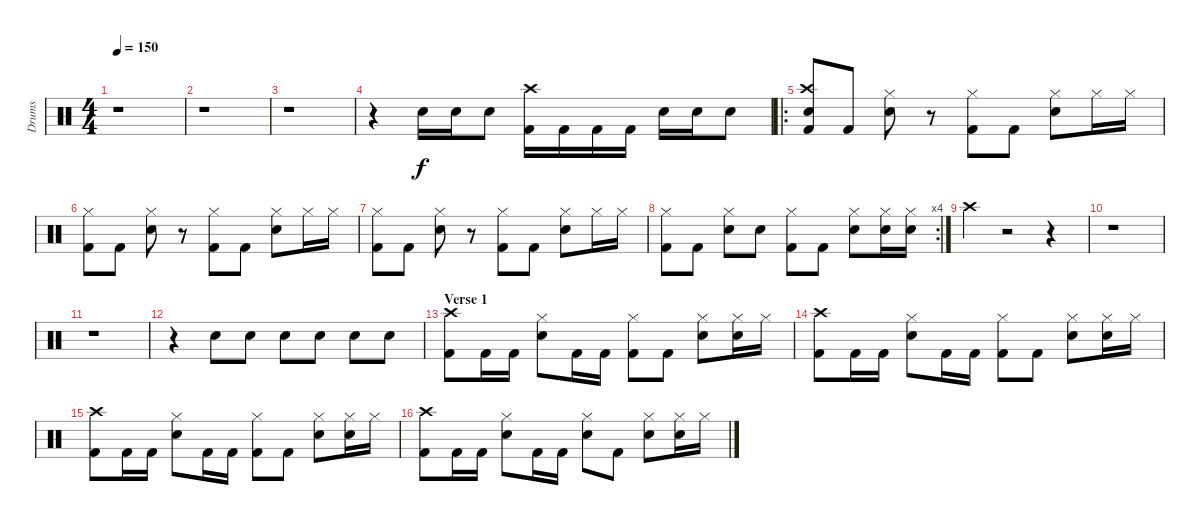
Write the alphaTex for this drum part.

\track ("Drums" "Drums") {instrument percussion}
\staff {score}
\articulation defaults
\ts (4 4)
\tempo 150
\clef neutral
\ks c
r.1{dy f} |
r.1 |
r.1 |
r.4 "Electric Snare (hit)".16 "Electric Snare (hit)".16 "Electric Snare (hit)".8 ("Crash high (hit)" "Kick (hit) 2").16 "Kick (hit) 2".16 "Kick (hit) 2".16 "Kick (hit) 2".16 "Electric Snare (hit)".16 "Electric Snare (hit)".16 "Electric Snare (hit)".8 |
\ro
("Crash high (hit)" "Electric Snare (hit)" "Kick (hit) 2").8 "Kick (hit) 2".8 ("Hi-Hat (closed)" "Electric Snare (hit)").8 r.8 ("Hi-Hat (closed)" "Kick (hit) 2").8 "Kick (hit) 2".8 ("Hi-Hat (closed)" "Electric Snare (hit)").8 "Hi-Hat (closed)".16 "Hi-Hat (closed)".16 |
("Hi-Hat (closed)" "Kick (hit) 2").8 "Kick (hit) 2".8 ("Hi-Hat (closed)" "Electric Snare (hit)").8 r.8 ("Hi-Hat (closed)" "Kick (hit) 2").8 "Kick (hit) 2".8 ("Hi-Hat (closed)" "Electric Snare (hit)").8 "Hi-Hat (closed)".16 "Hi-Hat (closed)".16 |
("Hi-Hat (closed)" "Kick (hit) 2").8 "Kick (hit) 2".8 ("Hi-Hat (closed)" "Electric Snare (hit)").8 r.8 ("Hi-Hat (closed)" "Kick (hit) 2").8 "Kick (hit) 2".8 ("Hi-Hat (closed)" "Electric Snare (hit)").8 "Hi-Hat (closed)".16 "Hi-Hat (closed)".16 |
\rc 4
("Hi-Hat (closed)" "Kick (hit) 2").8 "Kick (hit) 2".8 ("Hi-Hat (closed)" "Electric Snare (hit)").8 "Electric Snare (hit)".8 ("Hi-Hat (closed)" "Kick (hit) 2").8 "Kick (hit) 2".8 ("Hi-Hat (closed)" "Electric Snare (hit)").8 ("Hi-Hat (closed)" "Electric Snare (hit)").16 ("Hi-Hat (closed)" "Electric Snare (hit)").16 |
"Crash high (hit)".4 r.2 r.4 |
r.1 |
r.1 |
r.4 "Electric Snare (hit)".8 "Electric Snare (hit)".8 "Electric Snare (hit)".8 "Electric Snare (hit)".8 "Electric Snare (hit)".8 "Electric Snare (hit)".8 |
\section ("" "Verse 1")
("Crash high (hit)" "Kick (hit) 2").8 "Kick (hit) 2".16 "Kick (hit) 2".16 ("Hi-Hat (closed)" "Electric Snare (hit)").8 "Kick (hit) 2".16 "Kick (hit) 2".16 ("Hi-Hat (closed)" "Kick (hit) 2").8 "Kick (hit) 2".8 ("Hi-Hat (closed)" "Electric Snare (hit)").8 ("Hi-Hat (closed)" "Electric Snare (hit)").16 "Hi-Hat (closed)".16 |
("Crash high (hit)" "Kick (hit) 2").8 "Kick (hit) 2".16 "Kick (hit) 2".16 ("Hi-Hat (closed)" "Electric Snare (hit)").8 "Kick (hit) 2".16 "Kick (hit) 2".16 ("Hi-Hat (closed)" "Kick (hit) 2").8 "Kick (hit) 2".8 ("Hi-Hat (closed)" "Electric Snare (hit)").8 ("Hi-Hat (closed)" "Electric Snare (hit)").16 "Hi-Hat (closed)".16 |
("Crash high (hit)" "Kick (hit) 2").8 "Kick (hit) 2".16 "Kick (hit) 2".16 ("Hi-Hat (closed)" "Electric Snare (hit)").8 "Kick (hit) 2".16 "Kick (hit) 2".16 ("Hi-Hat (closed)" "Kick (hit) 2").8 "Kick (hit) 2".8 ("Hi-Hat (closed)" "Electric Snare (hit)").8 ("Hi-Hat (closed)" "Electric Snare (hit)").16 "Hi-Hat (closed)".16 |
("Crash high (hit)" "Kick (hit) 2").8 "Kick (hit) 2".16 "Kick (hit) 2".16 ("Hi-Hat (closed)" "Electric Snare (hit)").8 "Kick (hit) 2".16 "Kick (hit) 2".16 ("Hi-Hat (closed)" "Electric Snare (hit)").8 "Kick (hit) 2".8 ("Hi-Hat (closed)" "Electric Snare (hit)").8 ("Hi-Hat (closed)" "Electric Snare (hit)").16 "Hi-Hat (closed)".16
